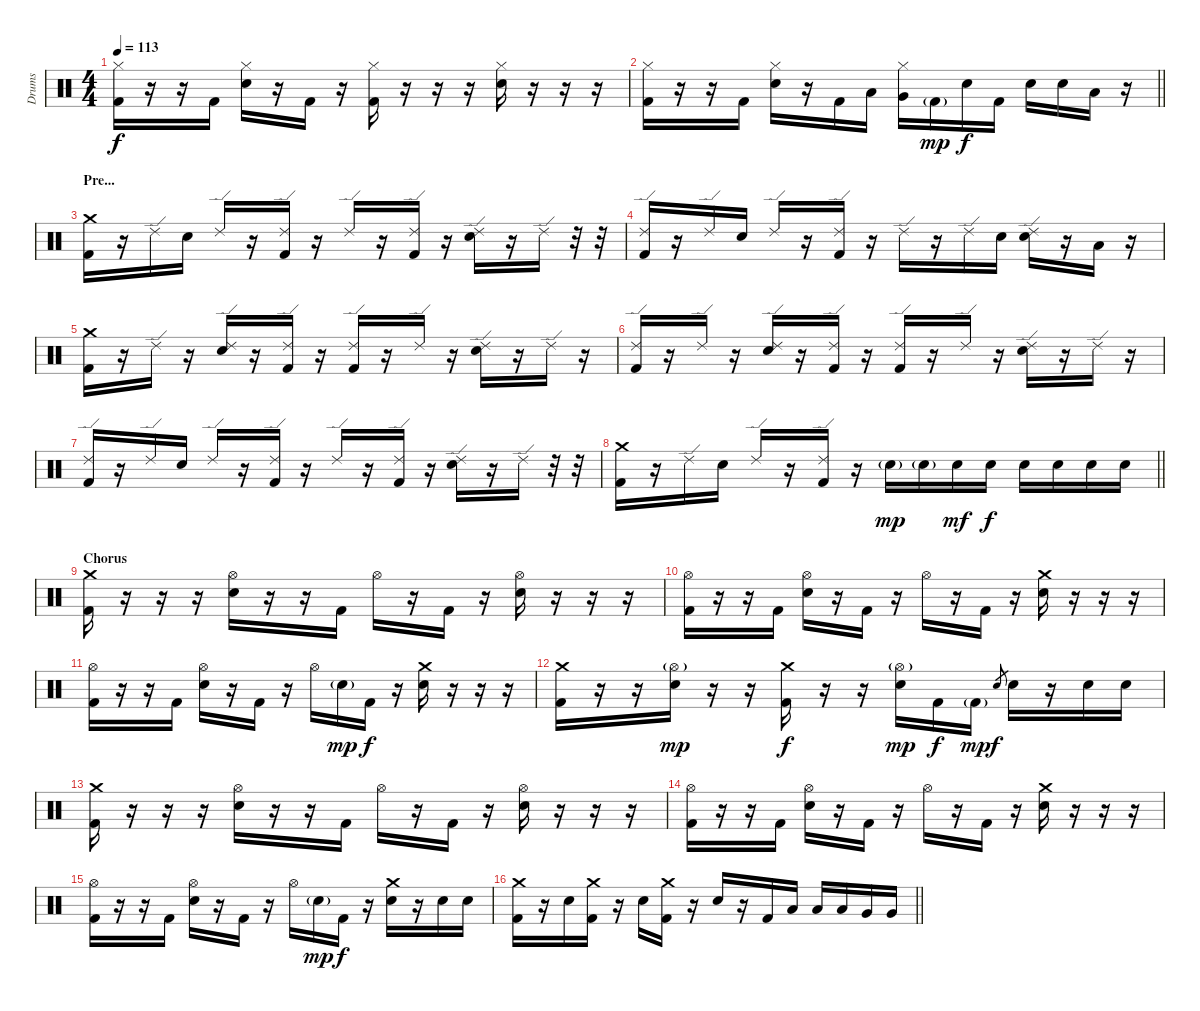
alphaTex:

\track ("Drums" "Drums") {instrument percussion}
\staff {score}
\articulation defaults
\ts (4 4)
\tempo 113
\clef neutral
\ks c
("Hi-Hat (closed)" "Kick (hit) 2").16{dy f} r.16 r.16 "Kick (hit) 2".16 ("Hi-Hat (closed)" "Electric Snare (hit)").16 r.16 "Kick (hit) 2".16 r.16 ("Hi-Hat (closed)" "Kick (hit) 2").16 r.16 r.16 r.16 ("Hi-Hat (closed)" "Electric Snare (hit)").16 r.16 r.16 r.16 |
\barLineRight lightlight
("Hi-Hat (closed)" "Kick (hit) 2").16 r.16 r.16 "Kick (hit) 2".16 ("Hi-Hat (closed)" "Electric Snare (hit)").16 r.16 "Kick (hit) 2".16 "Low Tom (hit)".16 ("Hi-Hat (closed)" "Very Low Tom (hit)").16 "Kick (hit) 2"{g}.16{dy mp} "Electric Snare (hit)".16{dy f} "Kick (hit) 2".16 "Electric Snare (hit)".16 "Electric Snare (hit)".16 "Low Tom (hit)".16 r.16 |
\section ("" "Pre...")
("Crash medium (hit)" "Kick (hit) 2").16 r.16 "Ride (edge) 2".16 "Electric Snare (hit)".16 "Ride (edge) 2".16 r.16 ("Ride (edge) 2" "Kick (hit) 2").16 r.16 "Ride (edge) 2".16 r.16 ("Ride (edge) 2" "Kick (hit) 2").16 r.16 ("Ride (edge) 2" "Electric Snare (hit)").16 r.16 "Ride (edge) 2".16 r.32 r.32 |
("Ride (edge) 2" "Kick (hit) 2").16 r.16 "Ride (edge) 2".16 "Electric Snare (hit)".16 "Ride (edge) 2".16 r.16 ("Ride (edge) 2" "Kick (hit) 2").16 r.16 "Ride (edge) 2".16 r.16 "Ride (edge) 2".16 "Electric Snare (hit)".16 ("Ride (edge) 2" "Electric Snare (hit)").16 r.16 "Low Tom (hit)".16 r.16 |
("Crash medium (hit)" "Kick (hit) 2").16 r.16 "Ride (edge) 2".16 r.16 ("Ride (edge) 2" "Electric Snare (hit)").16 r.16 ("Ride (edge) 2" "Kick (hit) 2").16 r.16 ("Ride (edge) 2" "Kick (hit) 2").16 r.16 "Ride (edge) 2".16 r.16 ("Ride (edge) 2" "Electric Snare (hit)").16 r.16 "Ride (edge) 2".16 r.16 |
("Ride (edge) 2" "Kick (hit) 2").16 r.16 "Ride (edge) 2".16 r.16 ("Ride (edge) 2" "Electric Snare (hit)").16 r.16 ("Ride (edge) 2" "Kick (hit) 2").16 r.16 ("Ride (edge) 2" "Kick (hit) 2").16 r.16 "Ride (edge) 2".16 r.16 ("Ride (edge) 2" "Electric Snare (hit)").16 r.16 "Ride (edge) 2".16 r.16 |
("Ride (edge) 2" "Kick (hit) 2").16 r.16 "Ride (edge) 2".16 "Electric Snare (hit)".16 "Ride (edge) 2".16 r.16 ("Ride (edge) 2" "Kick (hit) 2").16 r.16 "Ride (edge) 2".16 r.16 ("Ride (edge) 2" "Kick (hit) 2").16 r.16 ("Ride (edge) 2" "Electric Snare (hit)").16 r.16 "Ride (edge) 2".16 r.32 r.32 |
\barLineRight lightlight
("Crash medium (hit)" "Kick (hit) 2").16 r.16 "Ride (edge) 2".16 "Electric Snare (hit)".16 "Ride (edge) 2".16 r.16 ("Ride (edge) 2" "Kick (hit) 2").16 r.16 "Electric Snare (hit)"{g}.16{dy mp} "Electric Snare (hit)"{g}.16 "Electric Snare (hit)".16{dy mf} "Electric Snare (hit)".16{dy f} "Electric Snare (hit)".16 "Electric Snare (hit)".16 "Electric Snare (hit)".16 "Electric Snare (hit)".16 |
\section ("" "Chorus")
("Crash medium (hit)" "Kick (hit) 2").16 r.16 r.16 r.16 ("Hi-Hat (open)" "Electric Snare (hit)").16 r.16 r.16 "Kick (hit) 2".16 "Hi-Hat (open)".16 r.16 "Kick (hit) 2".16 r.16 ("Hi-Hat (open)" "Electric Snare (hit)").16 r.16 r.16 r.16 |
("Hi-Hat (open)" "Kick (hit) 2").16 r.16 r.16 "Kick (hit) 2".16 ("Hi-Hat (open)" "Electric Snare (hit)").16 r.16 "Kick (hit) 2".16 r.16 "Hi-Hat (open)".16 r.16 "Kick (hit) 2".16 r.16 ("Crash medium (hit)" "Electric Snare (hit)").16 r.16 r.16 r.16 |
("Hi-Hat (open)" "Kick (hit) 2").16 r.16 r.16 "Kick (hit) 2".16 ("Hi-Hat (open)" "Electric Snare (hit)").16 r.16 "Kick (hit) 2".16 r.16 "Hi-Hat (open)".16 "Electric Snare (hit)"{g}.16{dy mp} "Kick (hit) 2".16{dy f} r.16 ("Crash medium (hit)" "Electric Snare (hit)").16 r.16 r.16 r.16 |
("Crash medium (hit)" "Kick (hit) 2").16 r.16 r.16 ("Hi-Hat (open)"{g} "Electric Snare (hit)").16{dy mp} r.16 r.16 ("Crash medium (hit)" "Kick (hit) 2").16{dy f} r.16 r.16 ("Hi-Hat (open)"{g} "Electric Snare (hit)").16{dy mp} "Kick (hit) 2".16{dy f} "Kick (hit) 2"{g}.16{dy mp} "Electric Snare (hit)".8{gr dy f} "Electric Snare (hit)".16 r.16 "Electric Snare (hit)".16 "Electric Snare (hit)".16 |
("Crash medium (hit)" "Kick (hit) 2").16 r.16 r.16 r.16 ("Hi-Hat (open)" "Electric Snare (hit)").16 r.16 r.16 "Kick (hit) 2".16 "Hi-Hat (open)".16 r.16 "Kick (hit) 2".16 r.16 ("Hi-Hat (open)" "Electric Snare (hit)").16 r.16 r.16 r.16 |
("Hi-Hat (open)" "Kick (hit) 2").16 r.16 r.16 "Kick (hit) 2".16 ("Hi-Hat (open)" "Electric Snare (hit)").16 r.16 "Kick (hit) 2".16 r.16 "Hi-Hat (open)".16 r.16 "Kick (hit) 2".16 r.16 ("Crash medium (hit)" "Electric Snare (hit)").16 r.16 r.16 r.16 |
("Hi-Hat (open)" "Kick (hit) 2").16 r.16 r.16 "Kick (hit) 2".16 ("Hi-Hat (open)" "Electric Snare (hit)").16 r.16 "Kick (hit) 2".16 r.16 "Hi-Hat (open)".16 "Electric Snare (hit)"{g}.16{dy mp} "Kick (hit) 2".16{dy f} r.16 ("Crash medium (hit)" "Electric Snare (hit)").16 r.16 "Electric Snare (hit)".16 "Electric Snare (hit)".16 |
\barLineRight lightlight
("Crash medium (hit)" "Kick (hit) 2").16 r.16 "Electric Snare (hit)".16 ("Crash medium (hit)" "Kick (hit) 2").16 r.16 "Electric Snare (hit)".16 ("Crash medium (hit)" "Kick (hit) 2").16 r.16 "Electric Snare (hit)".16 r.16 "Kick (hit) 2".16 "Low Tom (hit)".16 "Low Tom (hit)".16 "Low Tom (hit)".16 "Very Low Tom (hit)".16 "Very Low Tom (hit)".16
